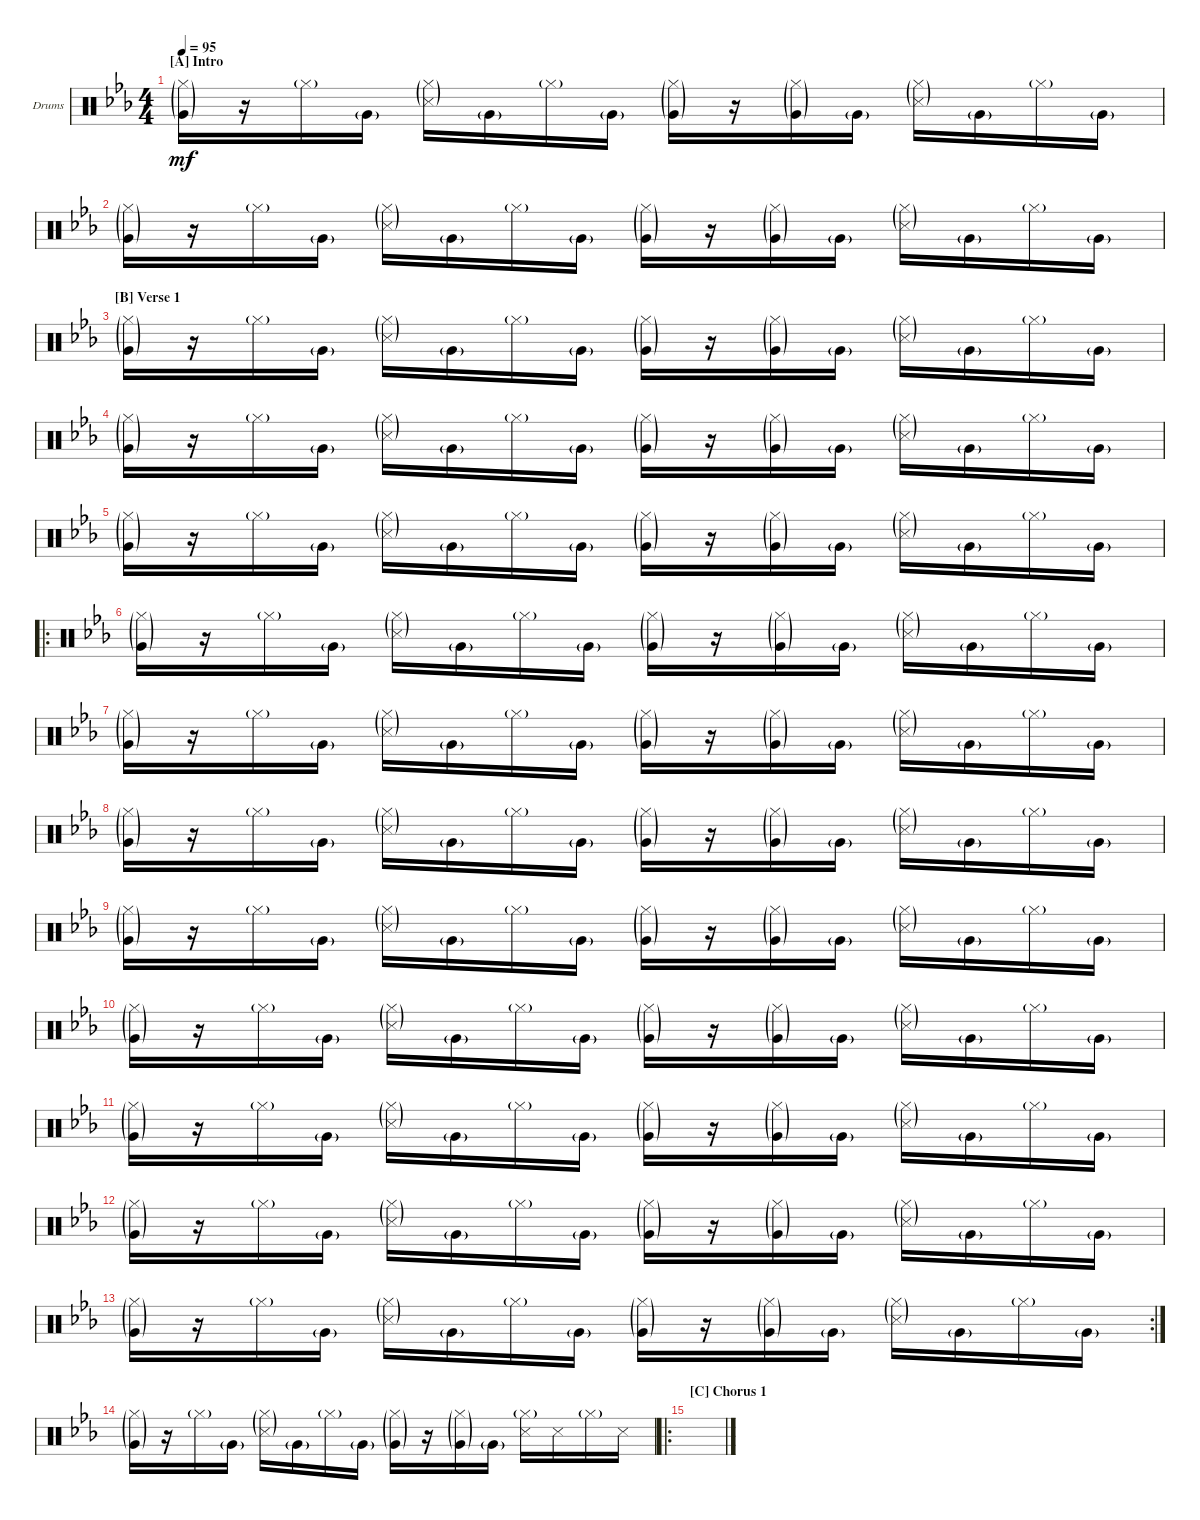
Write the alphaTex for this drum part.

\bracketExtendMode groupsimilarinstruments
\firstSystemTrackNameOrientation horizontal
\otherSystemsTrackNameOrientation horizontal
\track ("Drums" "Drums") {instrument percussion}
\staff {score}
\articulation defaults
\ts (4 4)
\section ("A" "Intro")
\tempo 95
\clef neutral
\scale
0.525
\ks eb
("Hi-Hat (closed)"{g} "Very Low Tom (hit)"{g}).16{dy mf} r.16 "Hi-Hat (closed)"{g}.16 "Very Low Tom (hit)"{g}.16 ("Hi-Hat (closed)"{g} "Snare (side stick) 3"{g}).16 "Very Low Tom (hit)"{g}.16 "Hi-Hat (closed)"{g}.16 "Very Low Tom (hit)"{g}.16 ("Hi-Hat (closed)"{g} "Very Low Tom (hit)"{g}).16 r.16 ("Hi-Hat (closed)"{g} "Very Low Tom (hit)"{g}).16 "Very Low Tom (hit)"{g}.16 ("Hi-Hat (closed)"{g} "Snare (side stick) 3"{g}).16 "Very Low Tom (hit)"{g}.16 "Hi-Hat (closed)"{g}.16 "Very Low Tom (hit)"{g}.16 |
\section ("" "")
\scale
0.2375 ("Hi-Hat (closed)"{g} "Very Low Tom (hit)"{g}).16 r.16 "Hi-Hat (closed)"{g}.16 "Very Low Tom (hit)"{g}.16 ("Hi-Hat (closed)"{g} "Snare (side stick) 3"{g}).16 "Very Low Tom (hit)"{g}.16 "Hi-Hat (closed)"{g}.16 "Very Low Tom (hit)"{g}.16 ("Hi-Hat (closed)"{g} "Very Low Tom (hit)"{g}).16 r.16 ("Hi-Hat (closed)"{g} "Very Low Tom (hit)"{g}).16 "Very Low Tom (hit)"{g}.16 ("Hi-Hat (closed)"{g} "Snare (side stick) 3"{g}).16 "Very Low Tom (hit)"{g}.16 "Hi-Hat (closed)"{g}.16 "Very Low Tom (hit)"{g}.16 |
\section ("B" "Verse 1")
\scale
0.2375 ("Hi-Hat (closed)"{g} "Very Low Tom (hit)"{g}).16 r.16 "Hi-Hat (closed)"{g}.16 "Very Low Tom (hit)"{g}.16 ("Hi-Hat (closed)"{g} "Snare (side stick) 3"{g}).16 "Very Low Tom (hit)"{g}.16 "Hi-Hat (closed)"{g}.16 "Very Low Tom (hit)"{g}.16 ("Hi-Hat (closed)"{g} "Very Low Tom (hit)"{g}).16 r.16 ("Hi-Hat (closed)"{g} "Very Low Tom (hit)"{g}).16 "Very Low Tom (hit)"{g}.16 ("Hi-Hat (closed)"{g} "Snare (side stick) 3"{g}).16 "Very Low Tom (hit)"{g}.16 "Hi-Hat (closed)"{g}.16 "Very Low Tom (hit)"{g}.16 |
\scale
0.311475 ("Hi-Hat (closed)"{g} "Very Low Tom (hit)"{g}).16 r.16 "Hi-Hat (closed)"{g}.16 "Very Low Tom (hit)"{g}.16 ("Hi-Hat (closed)"{g} "Snare (side stick) 3"{g}).16 "Very Low Tom (hit)"{g}.16 "Hi-Hat (closed)"{g}.16 "Very Low Tom (hit)"{g}.16 ("Hi-Hat (closed)"{g} "Very Low Tom (hit)"{g}).16 r.16 ("Hi-Hat (closed)"{g} "Very Low Tom (hit)"{g}).16 "Very Low Tom (hit)"{g}.16 ("Hi-Hat (closed)"{g} "Snare (side stick) 3"{g}).16 "Very Low Tom (hit)"{g}.16 "Hi-Hat (closed)"{g}.16 "Very Low Tom (hit)"{g}.16 |
\scale
0.311475 ("Hi-Hat (closed)"{g} "Very Low Tom (hit)"{g}).16 r.16 "Hi-Hat (closed)"{g}.16 "Very Low Tom (hit)"{g}.16 ("Hi-Hat (closed)"{g} "Snare (side stick) 3"{g}).16 "Very Low Tom (hit)"{g}.16 "Hi-Hat (closed)"{g}.16 "Very Low Tom (hit)"{g}.16 ("Hi-Hat (closed)"{g} "Very Low Tom (hit)"{g}).16 r.16 ("Hi-Hat (closed)"{g} "Very Low Tom (hit)"{g}).16 "Very Low Tom (hit)"{g}.16 ("Hi-Hat (closed)"{g} "Snare (side stick) 3"{g}).16 "Very Low Tom (hit)"{g}.16 "Hi-Hat (closed)"{g}.16 "Very Low Tom (hit)"{g}.16 |
\ro
\section ("" "")
\scale
0.377049 ("Hi-Hat (closed)"{g} "Very Low Tom (hit)"{g}).16 r.16 "Hi-Hat (closed)"{g}.16 "Very Low Tom (hit)"{g}.16 ("Hi-Hat (closed)"{g} "Snare (side stick) 3"{g}).16 "Very Low Tom (hit)"{g}.16 "Hi-Hat (closed)"{g}.16 "Very Low Tom (hit)"{g}.16 ("Hi-Hat (closed)"{g} "Very Low Tom (hit)"{g}).16 r.16 ("Hi-Hat (closed)"{g} "Very Low Tom (hit)"{g}).16 "Very Low Tom (hit)"{g}.16 ("Hi-Hat (closed)"{g} "Snare (side stick) 3"{g}).16 "Very Low Tom (hit)"{g}.16 "Hi-Hat (closed)"{g}.16 "Very Low Tom (hit)"{g}.16 |
\scale
0.333333 ("Hi-Hat (closed)"{g} "Very Low Tom (hit)"{g}).16 r.16 "Hi-Hat (closed)"{g}.16 "Very Low Tom (hit)"{g}.16 ("Hi-Hat (closed)"{g} "Snare (side stick) 3"{g}).16 "Very Low Tom (hit)"{g}.16 "Hi-Hat (closed)"{g}.16 "Very Low Tom (hit)"{g}.16 ("Hi-Hat (closed)"{g} "Very Low Tom (hit)"{g}).16 r.16 ("Hi-Hat (closed)"{g} "Very Low Tom (hit)"{g}).16 "Very Low Tom (hit)"{g}.16 ("Hi-Hat (closed)"{g} "Snare (side stick) 3"{g}).16 "Very Low Tom (hit)"{g}.16 "Hi-Hat (closed)"{g}.16 "Very Low Tom (hit)"{g}.16 |
\scale
0.333333 ("Hi-Hat (closed)"{g} "Very Low Tom (hit)"{g}).16 r.16 "Hi-Hat (closed)"{g}.16 "Very Low Tom (hit)"{g}.16 ("Hi-Hat (closed)"{g} "Snare (side stick) 3"{g}).16 "Very Low Tom (hit)"{g}.16 "Hi-Hat (closed)"{g}.16 "Very Low Tom (hit)"{g}.16 ("Hi-Hat (closed)"{g} "Very Low Tom (hit)"{g}).16 r.16 ("Hi-Hat (closed)"{g} "Very Low Tom (hit)"{g}).16 "Very Low Tom (hit)"{g}.16 ("Hi-Hat (closed)"{g} "Snare (side stick) 3"{g}).16 "Very Low Tom (hit)"{g}.16 "Hi-Hat (closed)"{g}.16 "Very Low Tom (hit)"{g}.16 |
\scale
0.333333 ("Hi-Hat (closed)"{g} "Very Low Tom (hit)"{g}).16 r.16 "Hi-Hat (closed)"{g}.16 "Very Low Tom (hit)"{g}.16 ("Hi-Hat (closed)"{g} "Snare (side stick) 3"{g}).16 "Very Low Tom (hit)"{g}.16 "Hi-Hat (closed)"{g}.16 "Very Low Tom (hit)"{g}.16 ("Hi-Hat (closed)"{g} "Very Low Tom (hit)"{g}).16 r.16 ("Hi-Hat (closed)"{g} "Very Low Tom (hit)"{g}).16 "Very Low Tom (hit)"{g}.16 ("Hi-Hat (closed)"{g} "Snare (side stick) 3"{g}).16 "Very Low Tom (hit)"{g}.16 "Hi-Hat (closed)"{g}.16 "Very Low Tom (hit)"{g}.16 |
\scale
0.333333 ("Hi-Hat (closed)"{g} "Very Low Tom (hit)"{g}).16 r.16 "Hi-Hat (closed)"{g}.16 "Very Low Tom (hit)"{g}.16 ("Hi-Hat (closed)"{g} "Snare (side stick) 3"{g}).16 "Very Low Tom (hit)"{g}.16 "Hi-Hat (closed)"{g}.16 "Very Low Tom (hit)"{g}.16 ("Hi-Hat (closed)"{g} "Very Low Tom (hit)"{g}).16 r.16 ("Hi-Hat (closed)"{g} "Very Low Tom (hit)"{g}).16 "Very Low Tom (hit)"{g}.16 ("Hi-Hat (closed)"{g} "Snare (side stick) 3"{g}).16 "Very Low Tom (hit)"{g}.16 "Hi-Hat (closed)"{g}.16 "Very Low Tom (hit)"{g}.16 |
\scale
0.333333 ("Hi-Hat (closed)"{g} "Very Low Tom (hit)"{g}).16 r.16 "Hi-Hat (closed)"{g}.16 "Very Low Tom (hit)"{g}.16 ("Hi-Hat (closed)"{g} "Snare (side stick) 3"{g}).16 "Very Low Tom (hit)"{g}.16 "Hi-Hat (closed)"{g}.16 "Very Low Tom (hit)"{g}.16 ("Hi-Hat (closed)"{g} "Very Low Tom (hit)"{g}).16 r.16 ("Hi-Hat (closed)"{g} "Very Low Tom (hit)"{g}).16 "Very Low Tom (hit)"{g}.16 ("Hi-Hat (closed)"{g} "Snare (side stick) 3"{g}).16 "Very Low Tom (hit)"{g}.16 "Hi-Hat (closed)"{g}.16 "Very Low Tom (hit)"{g}.16 |
\scale
0.333333 ("Hi-Hat (closed)"{g} "Very Low Tom (hit)"{g}).16 r.16 "Hi-Hat (closed)"{g}.16 "Very Low Tom (hit)"{g}.16 ("Hi-Hat (closed)"{g} "Snare (side stick) 3"{g}).16 "Very Low Tom (hit)"{g}.16 "Hi-Hat (closed)"{g}.16 "Very Low Tom (hit)"{g}.16 ("Hi-Hat (closed)"{g} "Very Low Tom (hit)"{g}).16 r.16 ("Hi-Hat (closed)"{g} "Very Low Tom (hit)"{g}).16 "Very Low Tom (hit)"{g}.16 ("Hi-Hat (closed)"{g} "Snare (side stick) 3"{g}).16 "Very Low Tom (hit)"{g}.16 "Hi-Hat (closed)"{g}.16 "Very Low Tom (hit)"{g}.16 |
\rc 2
\scale
0.333333 ("Hi-Hat (closed)"{g} "Very Low Tom (hit)"{g}).16 r.16 "Hi-Hat (closed)"{g}.16 "Very Low Tom (hit)"{g}.16 ("Hi-Hat (closed)"{g} "Snare (side stick) 3"{g}).16 "Very Low Tom (hit)"{g}.16 "Hi-Hat (closed)"{g}.16 "Very Low Tom (hit)"{g}.16 ("Hi-Hat (closed)"{g} "Very Low Tom (hit)"{g}).16 r.16 ("Hi-Hat (closed)"{g} "Very Low Tom (hit)"{g}).16 "Very Low Tom (hit)"{g}.16 ("Hi-Hat (closed)"{g} "Snare (side stick) 3"{g}).16 "Very Low Tom (hit)"{g}.16 "Hi-Hat (closed)"{g}.16 "Very Low Tom (hit)"{g}.16 |
\section ("" "")
\scale
0.365079 ("Hi-Hat (closed)"{g} "Very Low Tom (hit)"{g}).16 r.16 "Hi-Hat (closed)"{g}.16 "Very Low Tom (hit)"{g}.16 ("Hi-Hat (closed)"{g} "Snare (side stick) 3"{g}).16 "Very Low Tom (hit)"{g}.16 "Hi-Hat (closed)"{g}.16 "Very Low Tom (hit)"{g}.16 ("Hi-Hat (closed)"{g} "Very Low Tom (hit)"{g}).16 r.16 ("Hi-Hat (closed)"{g} "Very Low Tom (hit)"{g}).16 "Very Low Tom (hit)"{g}.16 ("Hi-Hat (closed)"{g} "Snare (side stick) 3").16 "Snare (side stick) 3".16 "Hi-Hat (closed)"{g}.16 "Snare (side stick) 3".16 |
\ro
\section ("C" "Chorus 1")
\scale
0.301587 |
\scale
0.322034
